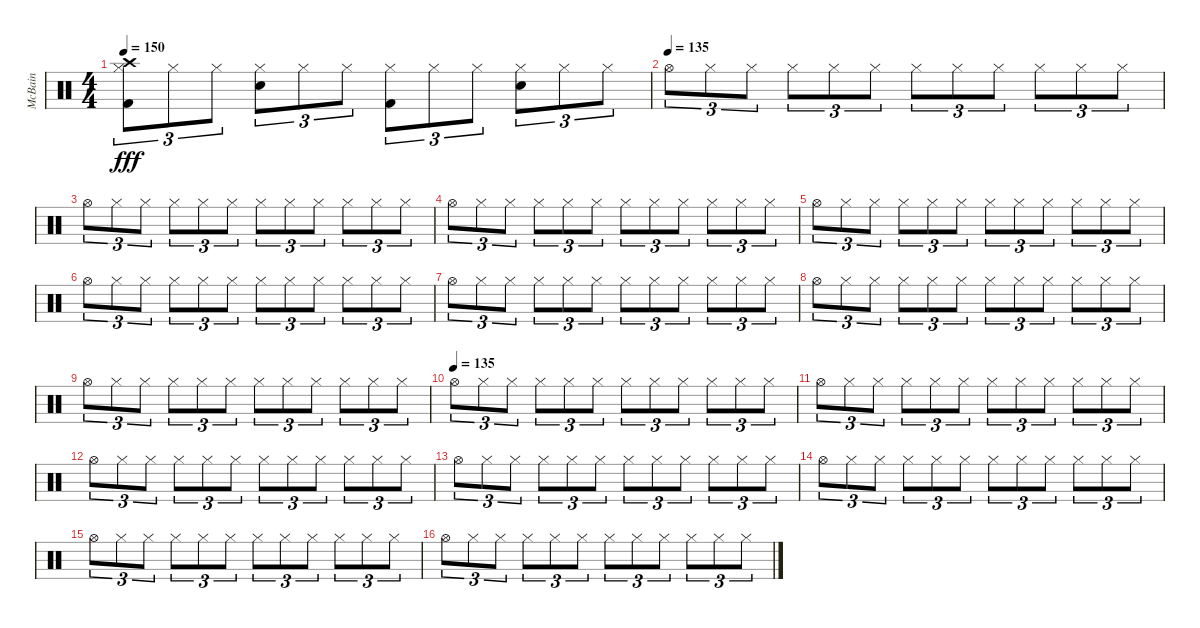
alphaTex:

\track ("McBain" "McBain") {instrument percussion}
\staff {score}
\articulation defaults
\ts (4 4)
\tempo 150
\clef neutral
\ks c
("Hi-Hat (closed)" "Kick (hit) 2" "Crash high (hit)").8{tu (3 2) dy fff} "Hi-Hat (closed)".8{tu (3 2)} "Hi-Hat (closed)".8{tu (3 2)} ("Hi-Hat (closed)" "Snare (hit) 2").8{tu (3 2)} "Hi-Hat (closed)".8{tu (3 2)} "Hi-Hat (closed)".8{tu (3 2)} ("Hi-Hat (closed)" "Kick (hit) 2").8{tu (3 2)} "Hi-Hat (closed)".8{tu (3 2)} "Hi-Hat (closed)".8{tu (3 2)} ("Hi-Hat (closed)" "Snare (hit) 2").8{tu (3 2)} "Hi-Hat (closed)".8{tu (3 2)} "Hi-Hat (closed)".8{tu (3 2)} |
\tempo (135)
"Hi-Hat (open)".8{tu (3 2)} "Hi-Hat (closed)".8{tu (3 2)} "Hi-Hat (closed)".8{tu (3 2)} "Hi-Hat (closed)".8{tu (3 2)} "Hi-Hat (closed)".8{tu (3 2)} "Hi-Hat (closed)".8{tu (3 2)} "Hi-Hat (closed)".8{tu (3 2)} "Hi-Hat (closed)".8{tu (3 2)} "Hi-Hat (closed)".8{tu (3 2)} "Hi-Hat (closed)".8{tu (3 2)} "Hi-Hat (closed)".8{tu (3 2)} "Hi-Hat (closed)".8{tu (3 2)} |
"Hi-Hat (open)".8{tu (3 2)} "Hi-Hat (closed)".8{tu (3 2)} "Hi-Hat (closed)".8{tu (3 2)} "Hi-Hat (closed)".8{tu (3 2)} "Hi-Hat (closed)".8{tu (3 2)} "Hi-Hat (closed)".8{tu (3 2)} "Hi-Hat (closed)".8{tu (3 2)} "Hi-Hat (closed)".8{tu (3 2)} "Hi-Hat (closed)".8{tu (3 2)} "Hi-Hat (closed)".8{tu (3 2)} "Hi-Hat (closed)".8{tu (3 2)} "Hi-Hat (closed)".8{tu (3 2)} |
"Hi-Hat (open)".8{tu (3 2)} "Hi-Hat (closed)".8{tu (3 2)} "Hi-Hat (closed)".8{tu (3 2)} "Hi-Hat (closed)".8{tu (3 2)} "Hi-Hat (closed)".8{tu (3 2)} "Hi-Hat (closed)".8{tu (3 2)} "Hi-Hat (closed)".8{tu (3 2)} "Hi-Hat (closed)".8{tu (3 2)} "Hi-Hat (closed)".8{tu (3 2)} "Hi-Hat (closed)".8{tu (3 2)} "Hi-Hat (closed)".8{tu (3 2)} "Hi-Hat (closed)".8{tu (3 2)} |
"Hi-Hat (open)".8{tu (3 2)} "Hi-Hat (closed)".8{tu (3 2)} "Hi-Hat (closed)".8{tu (3 2)} "Hi-Hat (closed)".8{tu (3 2)} "Hi-Hat (closed)".8{tu (3 2)} "Hi-Hat (closed)".8{tu (3 2)} "Hi-Hat (closed)".8{tu (3 2)} "Hi-Hat (closed)".8{tu (3 2)} "Hi-Hat (closed)".8{tu (3 2)} "Hi-Hat (closed)".8{tu (3 2)} "Hi-Hat (closed)".8{tu (3 2)} "Hi-Hat (closed)".8{tu (3 2)} |
"Hi-Hat (open)".8{tu (3 2)} "Hi-Hat (closed)".8{tu (3 2)} "Hi-Hat (closed)".8{tu (3 2)} "Hi-Hat (closed)".8{tu (3 2)} "Hi-Hat (closed)".8{tu (3 2)} "Hi-Hat (closed)".8{tu (3 2)} "Hi-Hat (closed)".8{tu (3 2)} "Hi-Hat (closed)".8{tu (3 2)} "Hi-Hat (closed)".8{tu (3 2)} "Hi-Hat (closed)".8{tu (3 2)} "Hi-Hat (closed)".8{tu (3 2)} "Hi-Hat (closed)".8{tu (3 2)} |
"Hi-Hat (open)".8{tu (3 2)} "Hi-Hat (closed)".8{tu (3 2)} "Hi-Hat (closed)".8{tu (3 2)} "Hi-Hat (closed)".8{tu (3 2)} "Hi-Hat (closed)".8{tu (3 2)} "Hi-Hat (closed)".8{tu (3 2)} "Hi-Hat (closed)".8{tu (3 2)} "Hi-Hat (closed)".8{tu (3 2)} "Hi-Hat (closed)".8{tu (3 2)} "Hi-Hat (closed)".8{tu (3 2)} "Hi-Hat (closed)".8{tu (3 2)} "Hi-Hat (closed)".8{tu (3 2)} |
"Hi-Hat (open)".8{tu (3 2)} "Hi-Hat (closed)".8{tu (3 2)} "Hi-Hat (closed)".8{tu (3 2)} "Hi-Hat (closed)".8{tu (3 2)} "Hi-Hat (closed)".8{tu (3 2)} "Hi-Hat (closed)".8{tu (3 2)} "Hi-Hat (closed)".8{tu (3 2)} "Hi-Hat (closed)".8{tu (3 2)} "Hi-Hat (closed)".8{tu (3 2)} "Hi-Hat (closed)".8{tu (3 2)} "Hi-Hat (closed)".8{tu (3 2)} "Hi-Hat (closed)".8{tu (3 2)} |
"Hi-Hat (open)".8{tu (3 2)} "Hi-Hat (closed)".8{tu (3 2)} "Hi-Hat (closed)".8{tu (3 2)} "Hi-Hat (closed)".8{tu (3 2)} "Hi-Hat (closed)".8{tu (3 2)} "Hi-Hat (closed)".8{tu (3 2)} "Hi-Hat (closed)".8{tu (3 2)} "Hi-Hat (closed)".8{tu (3 2)} "Hi-Hat (closed)".8{tu (3 2)} "Hi-Hat (closed)".8{tu (3 2)} "Hi-Hat (closed)".8{tu (3 2)} "Hi-Hat (closed)".8{tu (3 2)} |
\tempo (135)
"Hi-Hat (open)".8{tu (3 2)} "Hi-Hat (closed)".8{tu (3 2)} "Hi-Hat (closed)".8{tu (3 2)} "Hi-Hat (closed)".8{tu (3 2)} "Hi-Hat (closed)".8{tu (3 2)} "Hi-Hat (closed)".8{tu (3 2)} "Hi-Hat (closed)".8{tu (3 2)} "Hi-Hat (closed)".8{tu (3 2)} "Hi-Hat (closed)".8{tu (3 2)} "Hi-Hat (closed)".8{tu (3 2)} "Hi-Hat (closed)".8{tu (3 2)} "Hi-Hat (closed)".8{tu (3 2)} |
"Hi-Hat (open)".8{tu (3 2)} "Hi-Hat (closed)".8{tu (3 2)} "Hi-Hat (closed)".8{tu (3 2)} "Hi-Hat (closed)".8{tu (3 2)} "Hi-Hat (closed)".8{tu (3 2)} "Hi-Hat (closed)".8{tu (3 2)} "Hi-Hat (closed)".8{tu (3 2)} "Hi-Hat (closed)".8{tu (3 2)} "Hi-Hat (closed)".8{tu (3 2)} "Hi-Hat (closed)".8{tu (3 2)} "Hi-Hat (closed)".8{tu (3 2)} "Hi-Hat (closed)".8{tu (3 2)} |
"Hi-Hat (open)".8{tu (3 2)} "Hi-Hat (closed)".8{tu (3 2)} "Hi-Hat (closed)".8{tu (3 2)} "Hi-Hat (closed)".8{tu (3 2)} "Hi-Hat (closed)".8{tu (3 2)} "Hi-Hat (closed)".8{tu (3 2)} "Hi-Hat (closed)".8{tu (3 2)} "Hi-Hat (closed)".8{tu (3 2)} "Hi-Hat (closed)".8{tu (3 2)} "Hi-Hat (closed)".8{tu (3 2)} "Hi-Hat (closed)".8{tu (3 2)} "Hi-Hat (closed)".8{tu (3 2)} |
"Hi-Hat (open)".8{tu (3 2)} "Hi-Hat (closed)".8{tu (3 2)} "Hi-Hat (closed)".8{tu (3 2)} "Hi-Hat (closed)".8{tu (3 2)} "Hi-Hat (closed)".8{tu (3 2)} "Hi-Hat (closed)".8{tu (3 2)} "Hi-Hat (closed)".8{tu (3 2)} "Hi-Hat (closed)".8{tu (3 2)} "Hi-Hat (closed)".8{tu (3 2)} "Hi-Hat (closed)".8{tu (3 2)} "Hi-Hat (closed)".8{tu (3 2)} "Hi-Hat (closed)".8{tu (3 2)} |
"Hi-Hat (open)".8{tu (3 2)} "Hi-Hat (closed)".8{tu (3 2)} "Hi-Hat (closed)".8{tu (3 2)} "Hi-Hat (closed)".8{tu (3 2)} "Hi-Hat (closed)".8{tu (3 2)} "Hi-Hat (closed)".8{tu (3 2)} "Hi-Hat (closed)".8{tu (3 2)} "Hi-Hat (closed)".8{tu (3 2)} "Hi-Hat (closed)".8{tu (3 2)} "Hi-Hat (closed)".8{tu (3 2)} "Hi-Hat (closed)".8{tu (3 2)} "Hi-Hat (closed)".8{tu (3 2)} |
"Hi-Hat (open)".8{tu (3 2)} "Hi-Hat (closed)".8{tu (3 2)} "Hi-Hat (closed)".8{tu (3 2)} "Hi-Hat (closed)".8{tu (3 2)} "Hi-Hat (closed)".8{tu (3 2)} "Hi-Hat (closed)".8{tu (3 2)} "Hi-Hat (closed)".8{tu (3 2)} "Hi-Hat (closed)".8{tu (3 2)} "Hi-Hat (closed)".8{tu (3 2)} "Hi-Hat (closed)".8{tu (3 2)} "Hi-Hat (closed)".8{tu (3 2)} "Hi-Hat (closed)".8{tu (3 2)} |
"Hi-Hat (open)".8{tu (3 2)} "Hi-Hat (closed)".8{tu (3 2)} "Hi-Hat (closed)".8{tu (3 2)} "Hi-Hat (closed)".8{tu (3 2)} "Hi-Hat (closed)".8{tu (3 2)} "Hi-Hat (closed)".8{tu (3 2)} "Hi-Hat (closed)".8{tu (3 2)} "Hi-Hat (closed)".8{tu (3 2)} "Hi-Hat (closed)".8{tu (3 2)} "Hi-Hat (closed)".8{tu (3 2)} "Hi-Hat (closed)".8{tu (3 2)} "Hi-Hat (closed)".8{tu (3 2)}
